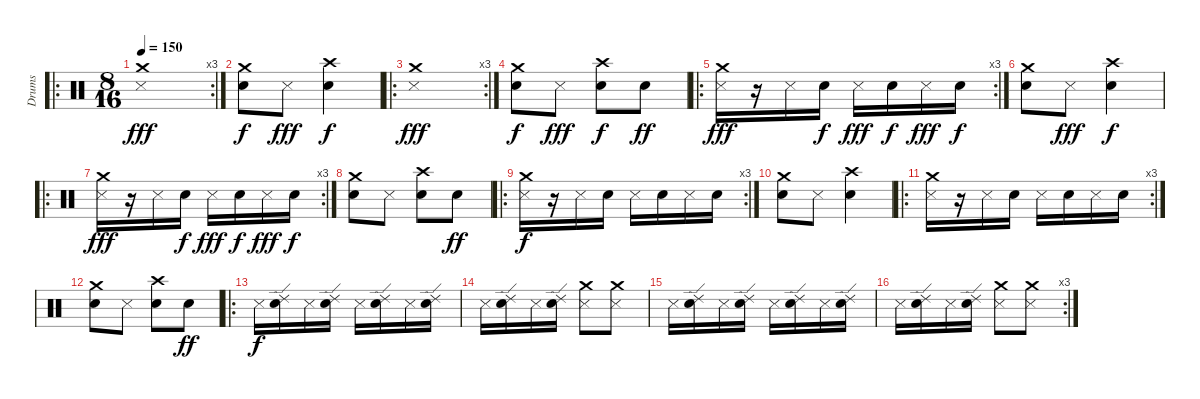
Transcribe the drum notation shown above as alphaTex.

\track ("Drums" "Drums") {instrument percussion}
\staff {score}
\articulation defaults
\ro
\rc 3
\ts (8 16)
\tempo 150
\clef neutral
\ks c
("Crash medium (hit)" "Metronome (hit)").1{dy fff} |
("Crash medium (hit)" "Metronome (bell)").8{dy f} "Metronome (hit)".8{dy fff} ("Crash high (hit)" "Metronome (bell)").4{dy f} |
\ro
\rc 3
("Crash medium (hit)" "Metronome (hit)").1{dy fff} |
("Crash medium (hit)" "Metronome (bell)").8{dy f} "Metronome (hit)".8{dy fff} ("Crash high (hit)" "Metronome (bell)").8{dy f} "Metronome (bell)".8{dy ff} |
\ro
\rc 3
("Crash medium (hit)" "Metronome (hit)").16{dy fff} r.16 "Metronome (hit)".16 "Metronome (bell)".16{dy f} "Metronome (hit)".16{dy fff} "Metronome (bell)".16{dy f} "Metronome (hit)".16{dy fff} "Metronome (bell)".16{dy f} |
("Crash medium (hit)" "Metronome (bell)").8 "Metronome (hit)".8{dy fff} ("Crash high (hit)" "Metronome (bell)").4{dy f} |
\ro
\rc 3
("Crash medium (hit)" "Metronome (hit)").16{dy fff} r.16 "Metronome (hit)".16 "Metronome (bell)".16{dy f} "Metronome (hit)".16{dy fff} "Metronome (bell)".16{dy f} "Metronome (hit)".16{dy fff} "Metronome (bell)".16{dy f} |
("Crash medium (hit)" "Metronome (bell)").8 "Metronome (hit)".8 ("Crash high (hit)" "Metronome (bell)").8 "Metronome (bell)".8{dy ff} |
\ro
\rc 3
("Crash medium (hit)" "Metronome (hit)").16{dy f} r.16 "Metronome (hit)".16 "Metronome (bell)".16 "Metronome (hit)".16 "Metronome (bell)".16 "Metronome (hit)".16 "Metronome (bell)".16 |
("Crash medium (hit)" "Metronome (bell)").8 "Metronome (hit)".8 ("Crash high (hit)" "Metronome (bell)").4 |
\ro
\rc 3
("Crash medium (hit)" "Metronome (hit)").16 r.16 "Metronome (hit)".16 "Metronome (bell)".16 "Metronome (hit)".16 "Metronome (bell)".16 "Metronome (hit)".16 "Metronome (bell)".16 |
("Crash medium (hit)" "Metronome (bell)").8 "Metronome (hit)".8 ("Crash high (hit)" "Metronome (bell)").8 "Metronome (bell)".8{dy ff} |
\ro "Metronome (hit)".16{dy f}
("Ride (edge) 2" "Metronome (bell)").16 "Metronome (hit)".16 ("Ride (edge) 2" "Metronome (bell)").16 "Metronome (hit)".16 ("Ride (edge) 2" "Metronome (bell)").16 "Metronome (hit)".16 ("Ride (edge) 2" "Metronome (bell)").16 |
"Metronome (hit)".16 ("Ride (edge) 2" "Metronome (bell)").16 "Metronome (hit)".16 ("Ride (edge) 2" "Metronome (bell)").16 ("Crash medium (hit)" "Metronome (hit)").8 ("Crash medium (hit)" "Metronome (hit)").8 |
"Metronome (hit)".16 ("Ride (edge) 2" "Metronome (bell)").16 "Metronome (hit)".16 ("Ride (edge) 2" "Metronome (bell)").16 "Metronome (hit)".16 ("Ride (edge) 2" "Metronome (bell)").16 "Metronome (hit)".16 ("Ride (edge) 2" "Metronome (bell)").16 |
\rc 3 "Metronome (hit)".16
("Ride (edge) 2" "Metronome (bell)").16 "Metronome (hit)".16 ("Ride (edge) 2" "Metronome (bell)").16 ("Crash medium (hit)" "Metronome (hit)").8 ("Crash medium (hit)" "Metronome (hit)").8
